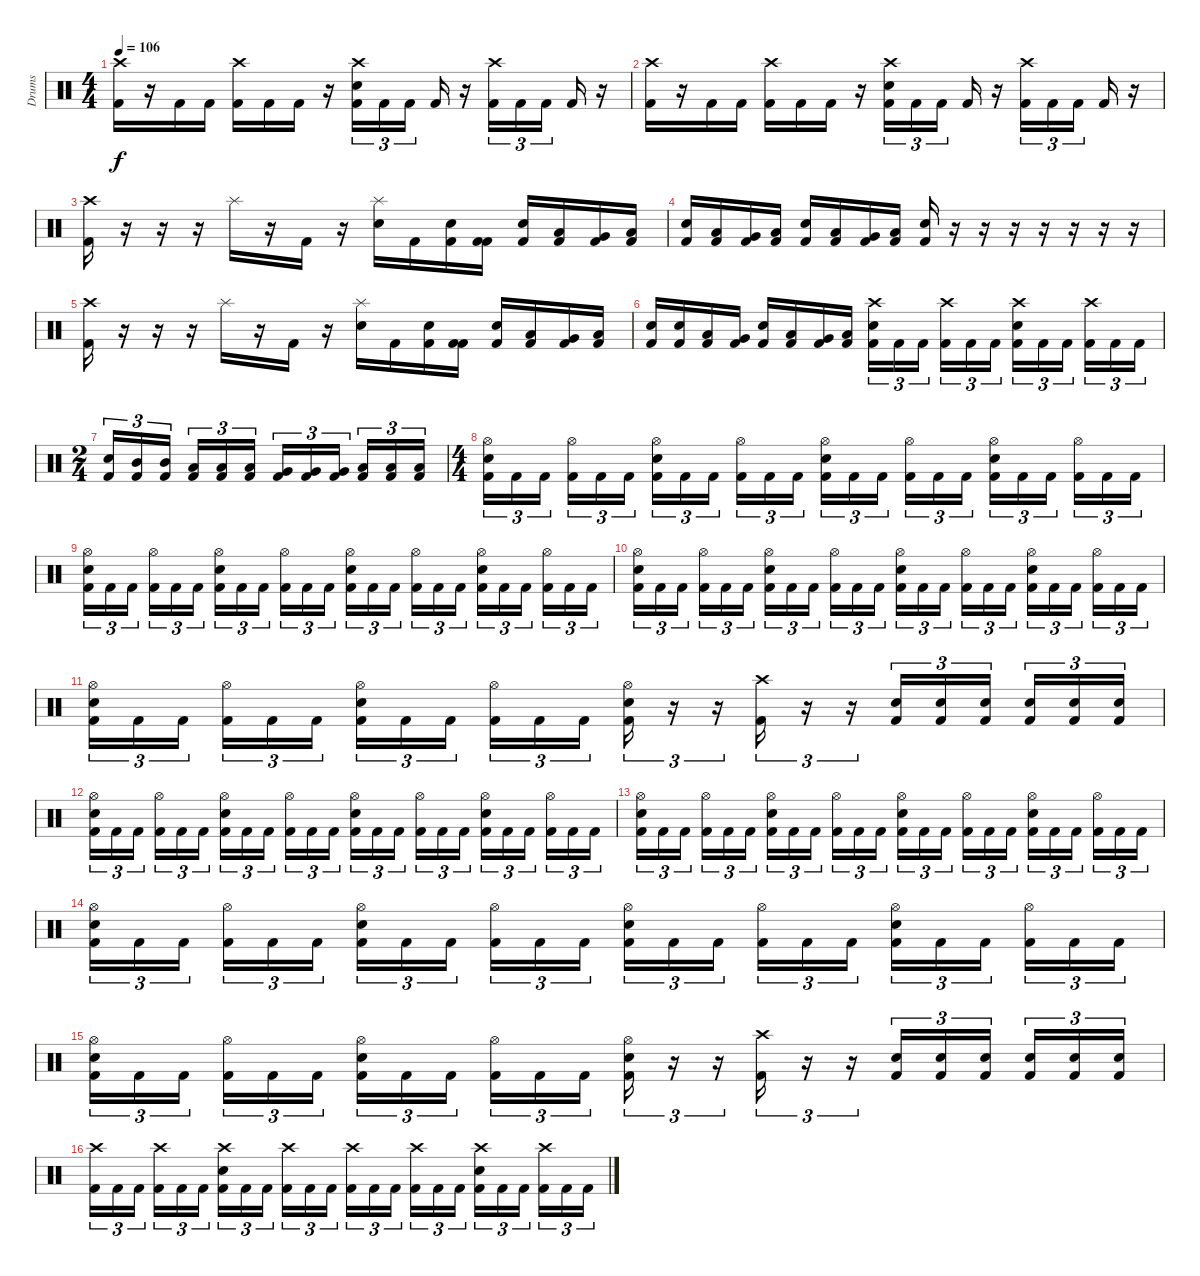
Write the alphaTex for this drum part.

\track ("Drums" "Drums") {instrument percussion}
\staff {score}
\articulation defaults
\ts (4 4)
\tempo 106
\clef neutral
\ks c
("Crash high (hit)" "Kick (hit) 2").16{dy f} r.16 "Kick (hit) 2".16 "Kick (hit) 2".16 ("Crash high (hit)" "Kick (hit) 2").16 "Kick (hit) 2".16 "Kick (hit) 2".16 r.16 ("Crash high (hit)" "Electric Snare (hit)" "Kick (hit) 2").16{tu (3 2)} "Kick (hit) 2".16{tu (3 2)} "Kick (hit) 2".16{tu (3 2) beam splitsecondary} "Kick (hit) 2".16 r.16 ("Crash high (hit)" "Kick (hit) 2").16{tu (3 2)} "Kick (hit) 2".16{tu (3 2)} "Kick (hit) 2".16{tu (3 2) beam splitsecondary} "Kick (hit) 2".16 r.16 |
("Crash high (hit)" "Kick (hit) 2").16 r.16 "Kick (hit) 2".16 "Kick (hit) 2".16 ("Crash high (hit)" "Kick (hit) 2").16 "Kick (hit) 2".16 "Kick (hit) 2".16 r.16 ("Crash high (hit)" "Electric Snare (hit)" "Kick (hit) 2").16{tu (3 2)} "Kick (hit) 2".16{tu (3 2)} "Kick (hit) 2".16{tu (3 2) beam splitsecondary} "Kick (hit) 2".16 r.16 ("Crash high (hit)" "Kick (hit) 2").16{tu (3 2)} "Kick (hit) 2".16{tu (3 2)} "Kick (hit) 2".16{tu (3 2) beam splitsecondary} "Kick (hit) 2".16 r.16 |
("Crash high (hit)" "Kick (hit) 2").16 r.16 r.16 r.16 "Splash (hit)".16 r.16 "Kick (hit) 2".16 r.16 ("Splash (hit)" "Electric Snare (hit)").16 "Kick (hit) 2".16 ("Electric Snare (hit)" "Kick (hit) 2").16 ("Kick (hit) 2" "Kick (hit) 2").16 ("Electric Snare (hit)" "Kick (hit) 2").16 ("Low Tom (hit)" "Kick (hit) 2").16 ("Very Low Tom (hit)" "Kick (hit) 2").16 ("Low Floor Tom (hit)" "Kick (hit) 2").16 |
("Electric Snare (hit)" "Kick (hit) 2").16 ("Low Tom (hit)" "Kick (hit) 2").16 ("Very Low Tom (hit)" "Kick (hit) 2").16 ("Low Floor Tom (hit)" "Kick (hit) 2").16 ("Electric Snare (hit)" "Kick (hit) 2").16 ("Low Tom (hit)" "Kick (hit) 2").16 ("Very Low Tom (hit)" "Kick (hit) 2").16 ("Low Floor Tom (hit)" "Kick (hit) 2").16 ("Electric Snare (hit)" "Kick (hit) 2").16 r.16 r.16 r.16 r.16 r.16 r.16 r.16 |
("Crash high (hit)" "Kick (hit) 2").16 r.16 r.16 r.16 "Splash (hit)".16 r.16 "Kick (hit) 2".16 r.16 ("Splash (hit)" "Electric Snare (hit)").16 "Kick (hit) 2".16 ("Electric Snare (hit)" "Kick (hit) 2").16 ("Kick (hit) 2" "Kick (hit) 2").16 ("Electric Snare (hit)" "Kick (hit) 2").16 ("Low Tom (hit)" "Kick (hit) 2").16 ("Very Low Tom (hit)" "Kick (hit) 2").16 ("Low Floor Tom (hit)" "Kick (hit) 2").16 |
("Electric Snare (hit)" "Kick (hit) 2").16 ("Electric Snare (hit)" "Kick (hit) 2").16 ("Low Tom (hit)" "Kick (hit) 2").16 ("Very Low Tom (hit)" "Kick (hit) 2").16 ("Electric Snare (hit)" "Kick (hit) 2").16 ("Low Tom (hit)" "Kick (hit) 2").16 ("Very Low Tom (hit)" "Kick (hit) 2").16 ("Low Floor Tom (hit)" "Kick (hit) 2").16 ("Crash high (hit)" "Electric Snare (hit)" "Kick (hit) 2").16{tu (3 2)} "Kick (hit) 2".16{tu (3 2)} "Kick (hit) 2".16{tu (3 2) beam splitsecondary} ("Crash high (hit)" "Kick (hit) 2").16{tu (3 2)} "Kick (hit) 2".16{tu (3 2)} "Kick (hit) 2".16{tu (3 2)} ("Crash high (hit)" "Electric Snare (hit)" "Kick (hit) 2").16{tu (3 2)} "Kick (hit) 2".16{tu (3 2)} "Kick (hit) 2".16{tu (3 2) beam splitsecondary} ("Crash high (hit)" "Kick (hit) 2").16{tu (3 2)} "Kick (hit) 2".16{tu (3 2)} "Kick (hit) 2".16{tu (3 2)} |
\ts (2 4)
("Electric Snare (hit)" "Kick (hit) 2").16{tu (3 2)} ("Mid Tom (hit)" "Kick (hit) 2").16{tu (3 2)} ("Mid Tom (hit)" "Kick (hit) 2").16{tu (3 2) beam splitsecondary} ("Low Tom (hit)" "Kick (hit) 2").16{tu (3 2)} ("Low Tom (hit)" "Kick (hit) 2").16{tu (3 2)} ("Low Tom (hit)" "Kick (hit) 2").16{tu (3 2)} ("Very Low Tom (hit)" "Kick (hit) 2").16{tu (3 2)} ("Very Low Tom (hit)" "Kick (hit) 2").16{tu (3 2)} ("Very Low Tom (hit)" "Kick (hit) 2").16{tu (3 2) beam splitsecondary} ("Low Floor Tom (hit)" "Kick (hit) 2").16{tu (3 2)} ("Low Floor Tom (hit)" "Kick (hit) 2").16{tu (3 2)} ("Low Floor Tom (hit)" "Kick (hit) 2").16{tu (3 2)} |
\ts (4 4)
("Hi-Hat (open)" "Electric Snare (hit)" "Kick (hit) 2").16{tu (3 2)} "Kick (hit) 2".16{tu (3 2)} "Kick (hit) 2".16{tu (3 2) beam splitsecondary} ("Hi-Hat (open)" "Kick (hit) 2").16{tu (3 2)} "Kick (hit) 2".16{tu (3 2)} "Kick (hit) 2".16{tu (3 2)} ("Hi-Hat (open)" "Electric Snare (hit)" "Kick (hit) 2").16{tu (3 2)} "Kick (hit) 2".16{tu (3 2)} "Kick (hit) 2".16{tu (3 2) beam splitsecondary} ("Hi-Hat (open)" "Kick (hit) 2").16{tu (3 2)} "Kick (hit) 2".16{tu (3 2)} "Kick (hit) 2".16{tu (3 2)} ("Hi-Hat (open)" "Electric Snare (hit)" "Kick (hit) 2").16{tu (3 2)} "Kick (hit) 2".16{tu (3 2)} "Kick (hit) 2".16{tu (3 2) beam splitsecondary} ("Hi-Hat (open)" "Kick (hit) 2").16{tu (3 2)} "Kick (hit) 2".16{tu (3 2)} "Kick (hit) 2".16{tu (3 2)} ("Hi-Hat (open)" "Electric Snare (hit)" "Kick (hit) 2").16{tu (3 2)} "Kick (hit) 2".16{tu (3 2)} "Kick (hit) 2".16{tu (3 2) beam splitsecondary} ("Hi-Hat (open)" "Kick (hit) 2").16{tu (3 2)} "Kick (hit) 2".16{tu (3 2)} "Kick (hit) 2".16{tu (3 2)} |
("Hi-Hat (open)" "Electric Snare (hit)" "Kick (hit) 2").16{tu (3 2)} "Kick (hit) 2".16{tu (3 2)} "Kick (hit) 2".16{tu (3 2) beam splitsecondary} ("Hi-Hat (open)" "Kick (hit) 2").16{tu (3 2)} "Kick (hit) 2".16{tu (3 2)} "Kick (hit) 2".16{tu (3 2)} ("Hi-Hat (open)" "Electric Snare (hit)" "Kick (hit) 2").16{tu (3 2)} "Kick (hit) 2".16{tu (3 2)} "Kick (hit) 2".16{tu (3 2) beam splitsecondary} ("Hi-Hat (open)" "Kick (hit) 2").16{tu (3 2)} "Kick (hit) 2".16{tu (3 2)} "Kick (hit) 2".16{tu (3 2)} ("Hi-Hat (open)" "Electric Snare (hit)" "Kick (hit) 2").16{tu (3 2)} "Kick (hit) 2".16{tu (3 2)} "Kick (hit) 2".16{tu (3 2) beam splitsecondary} ("Hi-Hat (open)" "Kick (hit) 2").16{tu (3 2)} "Kick (hit) 2".16{tu (3 2)} "Kick (hit) 2".16{tu (3 2)} ("Hi-Hat (open)" "Electric Snare (hit)" "Kick (hit) 2").16{tu (3 2)} "Kick (hit) 2".16{tu (3 2)} "Kick (hit) 2".16{tu (3 2) beam splitsecondary} ("Hi-Hat (open)" "Kick (hit) 2").16{tu (3 2)} "Kick (hit) 2".16{tu (3 2)} "Kick (hit) 2".16{tu (3 2)} |
("Hi-Hat (open)" "Electric Snare (hit)" "Kick (hit) 2").16{tu (3 2)} "Kick (hit) 2".16{tu (3 2)} "Kick (hit) 2".16{tu (3 2) beam splitsecondary} ("Hi-Hat (open)" "Kick (hit) 2").16{tu (3 2)} "Kick (hit) 2".16{tu (3 2)} "Kick (hit) 2".16{tu (3 2)} ("Hi-Hat (open)" "Electric Snare (hit)" "Kick (hit) 2").16{tu (3 2)} "Kick (hit) 2".16{tu (3 2)} "Kick (hit) 2".16{tu (3 2) beam splitsecondary} ("Hi-Hat (open)" "Kick (hit) 2").16{tu (3 2)} "Kick (hit) 2".16{tu (3 2)} "Kick (hit) 2".16{tu (3 2)} ("Hi-Hat (open)" "Electric Snare (hit)" "Kick (hit) 2").16{tu (3 2)} "Kick (hit) 2".16{tu (3 2)} "Kick (hit) 2".16{tu (3 2) beam splitsecondary} ("Hi-Hat (open)" "Kick (hit) 2").16{tu (3 2)} "Kick (hit) 2".16{tu (3 2)} "Kick (hit) 2".16{tu (3 2)} ("Hi-Hat (open)" "Electric Snare (hit)" "Kick (hit) 2").16{tu (3 2)} "Kick (hit) 2".16{tu (3 2)} "Kick (hit) 2".16{tu (3 2) beam splitsecondary} ("Hi-Hat (open)" "Kick (hit) 2").16{tu (3 2)} "Kick (hit) 2".16{tu (3 2)} "Kick (hit) 2".16{tu (3 2)} |
("Hi-Hat (open)" "Electric Snare (hit)" "Kick (hit) 2").16{tu (3 2)} "Kick (hit) 2".16{tu (3 2)} "Kick (hit) 2".16{tu (3 2) beam splitsecondary} ("Hi-Hat (open)" "Kick (hit) 2").16{tu (3 2)} "Kick (hit) 2".16{tu (3 2)} "Kick (hit) 2".16{tu (3 2)} ("Hi-Hat (open)" "Electric Snare (hit)" "Kick (hit) 2").16{tu (3 2)} "Kick (hit) 2".16{tu (3 2)} "Kick (hit) 2".16{tu (3 2) beam splitsecondary} ("Hi-Hat (open)" "Kick (hit) 2").16{tu (3 2)} "Kick (hit) 2".16{tu (3 2)} "Kick (hit) 2".16{tu (3 2)} ("Hi-Hat (open)" "Electric Snare (hit)" "Kick (hit) 2").16{tu (3 2)} r.16{tu (3 2)} r.16{tu (3 2)} ("Crash high (hit)" "Kick (hit) 2").16{tu (3 2)} r.16{tu (3 2)} r.16{tu (3 2)} ("Electric Snare (hit)" "Kick (hit) 2").16{tu (3 2)} ("Electric Snare (hit)" "Kick (hit) 2").16{tu (3 2)} ("Electric Snare (hit)" "Kick (hit) 2").16{tu (3 2) beam splitsecondary} ("Electric Snare (hit)" "Kick (hit) 2").16{tu (3 2)} ("Electric Snare (hit)" "Kick (hit) 2").16{tu (3 2)} ("Electric Snare (hit)" "Kick (hit) 2").16{tu (3 2)} |
("Hi-Hat (open)" "Electric Snare (hit)" "Kick (hit) 2").16{tu (3 2)} "Kick (hit) 2".16{tu (3 2)} "Kick (hit) 2".16{tu (3 2) beam splitsecondary} ("Hi-Hat (open)" "Kick (hit) 2").16{tu (3 2)} "Kick (hit) 2".16{tu (3 2)} "Kick (hit) 2".16{tu (3 2)} ("Hi-Hat (open)" "Electric Snare (hit)" "Kick (hit) 2").16{tu (3 2)} "Kick (hit) 2".16{tu (3 2)} "Kick (hit) 2".16{tu (3 2) beam splitsecondary} ("Hi-Hat (open)" "Kick (hit) 2").16{tu (3 2)} "Kick (hit) 2".16{tu (3 2)} "Kick (hit) 2".16{tu (3 2)} ("Hi-Hat (open)" "Electric Snare (hit)" "Kick (hit) 2").16{tu (3 2)} "Kick (hit) 2".16{tu (3 2)} "Kick (hit) 2".16{tu (3 2) beam splitsecondary} ("Hi-Hat (open)" "Kick (hit) 2").16{tu (3 2)} "Kick (hit) 2".16{tu (3 2)} "Kick (hit) 2".16{tu (3 2)} ("Hi-Hat (open)" "Electric Snare (hit)" "Kick (hit) 2").16{tu (3 2)} "Kick (hit) 2".16{tu (3 2)} "Kick (hit) 2".16{tu (3 2) beam splitsecondary} ("Hi-Hat (open)" "Kick (hit) 2").16{tu (3 2)} "Kick (hit) 2".16{tu (3 2)} "Kick (hit) 2".16{tu (3 2)} |
("Hi-Hat (open)" "Electric Snare (hit)" "Kick (hit) 2").16{tu (3 2)} "Kick (hit) 2".16{tu (3 2)} "Kick (hit) 2".16{tu (3 2) beam splitsecondary} ("Hi-Hat (open)" "Kick (hit) 2").16{tu (3 2)} "Kick (hit) 2".16{tu (3 2)} "Kick (hit) 2".16{tu (3 2)} ("Hi-Hat (open)" "Electric Snare (hit)" "Kick (hit) 2").16{tu (3 2)} "Kick (hit) 2".16{tu (3 2)} "Kick (hit) 2".16{tu (3 2) beam splitsecondary} ("Hi-Hat (open)" "Kick (hit) 2").16{tu (3 2)} "Kick (hit) 2".16{tu (3 2)} "Kick (hit) 2".16{tu (3 2)} ("Hi-Hat (open)" "Electric Snare (hit)" "Kick (hit) 2").16{tu (3 2)} "Kick (hit) 2".16{tu (3 2)} "Kick (hit) 2".16{tu (3 2) beam splitsecondary} ("Hi-Hat (open)" "Kick (hit) 2").16{tu (3 2)} "Kick (hit) 2".16{tu (3 2)} "Kick (hit) 2".16{tu (3 2)} ("Hi-Hat (open)" "Electric Snare (hit)" "Kick (hit) 2").16{tu (3 2)} "Kick (hit) 2".16{tu (3 2)} "Kick (hit) 2".16{tu (3 2) beam splitsecondary} ("Hi-Hat (open)" "Kick (hit) 2").16{tu (3 2)} "Kick (hit) 2".16{tu (3 2)} "Kick (hit) 2".16{tu (3 2)} |
("Hi-Hat (open)" "Electric Snare (hit)" "Kick (hit) 2").16{tu (3 2)} "Kick (hit) 2".16{tu (3 2)} "Kick (hit) 2".16{tu (3 2) beam splitsecondary} ("Hi-Hat (open)" "Kick (hit) 2").16{tu (3 2)} "Kick (hit) 2".16{tu (3 2)} "Kick (hit) 2".16{tu (3 2)} ("Hi-Hat (open)" "Electric Snare (hit)" "Kick (hit) 2").16{tu (3 2)} "Kick (hit) 2".16{tu (3 2)} "Kick (hit) 2".16{tu (3 2) beam splitsecondary} ("Hi-Hat (open)" "Kick (hit) 2").16{tu (3 2)} "Kick (hit) 2".16{tu (3 2)} "Kick (hit) 2".16{tu (3 2)} ("Hi-Hat (open)" "Electric Snare (hit)" "Kick (hit) 2").16{tu (3 2)} "Kick (hit) 2".16{tu (3 2)} "Kick (hit) 2".16{tu (3 2) beam splitsecondary} ("Hi-Hat (open)" "Kick (hit) 2").16{tu (3 2)} "Kick (hit) 2".16{tu (3 2)} "Kick (hit) 2".16{tu (3 2)} ("Hi-Hat (open)" "Electric Snare (hit)" "Kick (hit) 2").16{tu (3 2)} "Kick (hit) 2".16{tu (3 2)} "Kick (hit) 2".16{tu (3 2) beam splitsecondary} ("Hi-Hat (open)" "Kick (hit) 2").16{tu (3 2)} "Kick (hit) 2".16{tu (3 2)} "Kick (hit) 2".16{tu (3 2)} |
("Hi-Hat (open)" "Electric Snare (hit)" "Kick (hit) 2").16{tu (3 2)} "Kick (hit) 2".16{tu (3 2)} "Kick (hit) 2".16{tu (3 2) beam splitsecondary} ("Hi-Hat (open)" "Kick (hit) 2").16{tu (3 2)} "Kick (hit) 2".16{tu (3 2)} "Kick (hit) 2".16{tu (3 2)} ("Hi-Hat (open)" "Electric Snare (hit)" "Kick (hit) 2").16{tu (3 2)} "Kick (hit) 2".16{tu (3 2)} "Kick (hit) 2".16{tu (3 2) beam splitsecondary} ("Hi-Hat (open)" "Kick (hit) 2").16{tu (3 2)} "Kick (hit) 2".16{tu (3 2)} "Kick (hit) 2".16{tu (3 2)} ("Hi-Hat (open)" "Electric Snare (hit)" "Kick (hit) 2").16{tu (3 2)} r.16{tu (3 2)} r.16{tu (3 2)} ("Crash high (hit)" "Kick (hit) 2").16{tu (3 2)} r.16{tu (3 2)} r.16{tu (3 2)} ("Electric Snare (hit)" "Kick (hit) 2").16{tu (3 2)} ("Electric Snare (hit)" "Kick (hit) 2").16{tu (3 2)} ("Electric Snare (hit)" "Kick (hit) 2").16{tu (3 2) beam splitsecondary} ("Electric Snare (hit)" "Kick (hit) 2").16{tu (3 2)} ("Electric Snare (hit)" "Kick (hit) 2").16{tu (3 2)} ("Electric Snare (hit)" "Kick (hit) 2").16{tu (3 2)} |
("Crash high (hit)" "Kick (hit) 2").16{tu (3 2)} "Kick (hit) 2".16{tu (3 2)} "Kick (hit) 2".16{tu (3 2) beam splitsecondary} ("Crash high (hit)" "Kick (hit) 2").16{tu (3 2)} "Kick (hit) 2".16{tu (3 2)} "Kick (hit) 2".16{tu (3 2)} ("Crash high (hit)" "Electric Snare (hit)" "Kick (hit) 2").16{tu (3 2)} "Kick (hit) 2".16{tu (3 2)} "Kick (hit) 2".16{tu (3 2) beam splitsecondary} ("Crash high (hit)" "Kick (hit) 2").16{tu (3 2)} "Kick (hit) 2".16{tu (3 2)} "Kick (hit) 2".16{tu (3 2)} ("Crash high (hit)" "Kick (hit) 2").16{tu (3 2)} "Kick (hit) 2".16{tu (3 2)} "Kick (hit) 2".16{tu (3 2) beam splitsecondary} ("Crash high (hit)" "Kick (hit) 2").16{tu (3 2)} "Kick (hit) 2".16{tu (3 2)} "Kick (hit) 2".16{tu (3 2)} ("Crash high (hit)" "Electric Snare (hit)" "Kick (hit) 2").16{tu (3 2)} "Kick (hit) 2".16{tu (3 2)} "Kick (hit) 2".16{tu (3 2) beam splitsecondary} ("Crash high (hit)" "Kick (hit) 2").16{tu (3 2)} "Kick (hit) 2".16{tu (3 2)} "Kick (hit) 2".16{tu (3 2)}
